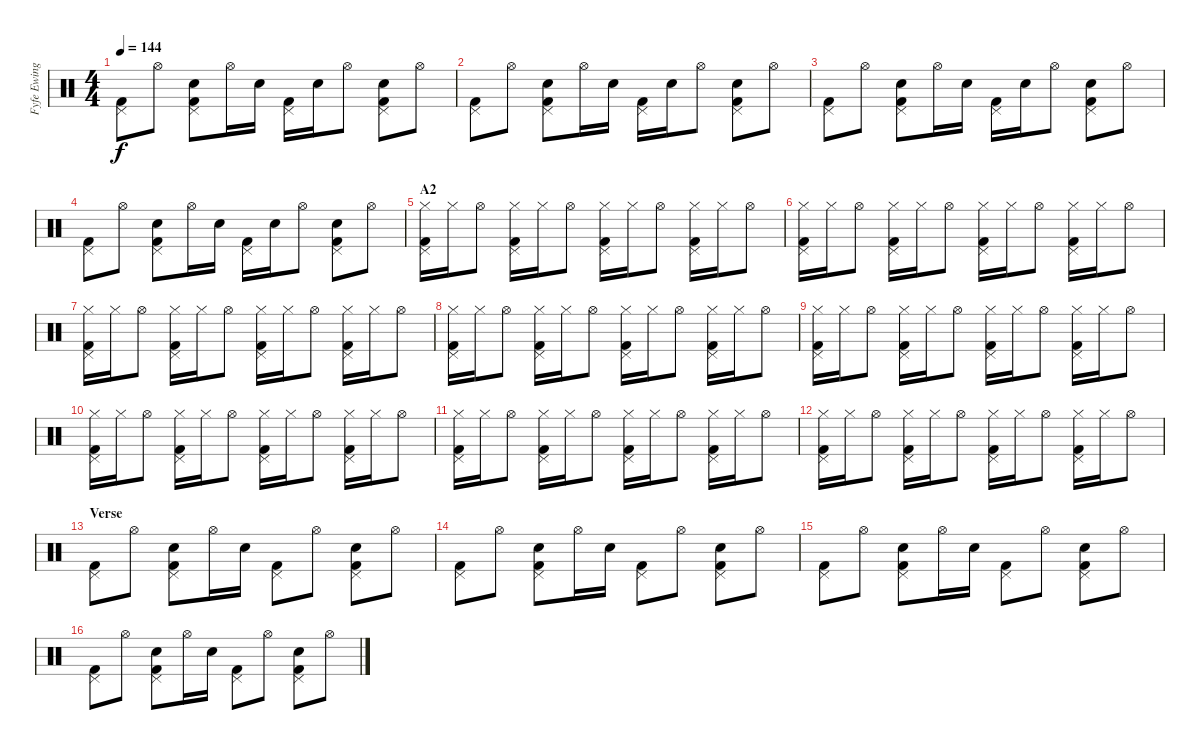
\track ("Fyfe Ewing" "Fyfe Ewing") {instrument percussion}
\staff {score}
\articulation defaults
\ts (4 4)
\tempo 144
\clef neutral
\ks c
("Pedal Hi-Hat (hit)" "Kick (hit) 2").8{dy f} "Hi-Hat (open)".8 ("Pedal Hi-Hat (hit)" "Snare (hit) 2" "Kick (hit) 2").8 "Hi-Hat (open)".16 "Snare (hit) 2".16 ("Pedal Hi-Hat (hit)" "Kick (hit) 2").16 "Snare (hit) 2".16 "Hi-Hat (open)".8 ("Pedal Hi-Hat (hit)" "Snare (hit) 2" "Kick (hit) 2").8 "Hi-Hat (open)".8 |
("Pedal Hi-Hat (hit)" "Kick (hit) 2").8 "Hi-Hat (open)".8 ("Pedal Hi-Hat (hit)" "Snare (hit) 2" "Kick (hit) 2").8 "Hi-Hat (open)".16 "Snare (hit) 2".16 ("Pedal Hi-Hat (hit)" "Kick (hit) 2").16 "Snare (hit) 2".16 "Hi-Hat (open)".8 ("Pedal Hi-Hat (hit)" "Snare (hit) 2" "Kick (hit) 2").8 "Hi-Hat (open)".8 |
("Pedal Hi-Hat (hit)" "Kick (hit) 2").8 "Hi-Hat (open)".8 ("Pedal Hi-Hat (hit)" "Snare (hit) 2" "Kick (hit) 2").8 "Hi-Hat (open)".16 "Snare (hit) 2".16 ("Pedal Hi-Hat (hit)" "Kick (hit) 2").16 "Snare (hit) 2".16 "Hi-Hat (open)".8 ("Pedal Hi-Hat (hit)" "Snare (hit) 2" "Kick (hit) 2").8 "Hi-Hat (open)".8 |
("Pedal Hi-Hat (hit)" "Kick (hit) 2").8 "Hi-Hat (open)".8 ("Pedal Hi-Hat (hit)" "Snare (hit) 2" "Kick (hit) 2").8 "Hi-Hat (open)".16 "Snare (hit) 2".16 ("Pedal Hi-Hat (hit)" "Kick (hit) 2").16 "Snare (hit) 2".16 "Hi-Hat (open)".8 ("Pedal Hi-Hat (hit)" "Snare (hit) 2" "Kick (hit) 2").8 "Hi-Hat (open)".8 |
\section ("" "A2")
("Hi-Hat (closed)" "Pedal Hi-Hat (hit)" "Kick (hit) 2").16 "Hi-Hat (closed)".16 "Hi-Hat (open)".8 ("Hi-Hat (closed)" "Pedal Hi-Hat (hit)" "Kick (hit) 2").16 "Hi-Hat (closed)".16 "Hi-Hat (open)".8 ("Hi-Hat (closed)" "Pedal Hi-Hat (hit)" "Kick (hit) 2").16 "Hi-Hat (closed)".16 "Hi-Hat (open)".8 ("Hi-Hat (closed)" "Pedal Hi-Hat (hit)" "Kick (hit) 2").16 "Hi-Hat (closed)".16 "Hi-Hat (open)".8 |
("Hi-Hat (closed)" "Pedal Hi-Hat (hit)" "Kick (hit) 2").16 "Hi-Hat (closed)".16 "Hi-Hat (open)".8 ("Hi-Hat (closed)" "Pedal Hi-Hat (hit)" "Kick (hit) 2").16 "Hi-Hat (closed)".16 "Hi-Hat (open)".8 ("Hi-Hat (closed)" "Pedal Hi-Hat (hit)" "Kick (hit) 2").16 "Hi-Hat (closed)".16 "Hi-Hat (open)".8 ("Hi-Hat (closed)" "Pedal Hi-Hat (hit)" "Kick (hit) 2").16 "Hi-Hat (closed)".16 "Hi-Hat (open)".8 |
("Hi-Hat (closed)" "Pedal Hi-Hat (hit)" "Kick (hit) 2").16 "Hi-Hat (closed)".16 "Hi-Hat (open)".8 ("Hi-Hat (closed)" "Pedal Hi-Hat (hit)" "Kick (hit) 2").16 "Hi-Hat (closed)".16 "Hi-Hat (open)".8 ("Hi-Hat (closed)" "Pedal Hi-Hat (hit)" "Kick (hit) 2").16 "Hi-Hat (closed)".16 "Hi-Hat (open)".8 ("Hi-Hat (closed)" "Pedal Hi-Hat (hit)" "Kick (hit) 2").16 "Hi-Hat (closed)".16 "Hi-Hat (open)".8 |
("Hi-Hat (closed)" "Pedal Hi-Hat (hit)" "Kick (hit) 2").16 "Hi-Hat (closed)".16 "Hi-Hat (open)".8 ("Hi-Hat (closed)" "Pedal Hi-Hat (hit)" "Kick (hit) 2").16 "Hi-Hat (closed)".16 "Hi-Hat (open)".8 ("Hi-Hat (closed)" "Pedal Hi-Hat (hit)" "Kick (hit) 2").16 "Hi-Hat (closed)".16 "Hi-Hat (open)".8 ("Hi-Hat (closed)" "Pedal Hi-Hat (hit)" "Kick (hit) 2").16 "Hi-Hat (closed)".16 "Hi-Hat (open)".8 |
("Hi-Hat (closed)" "Pedal Hi-Hat (hit)" "Kick (hit) 2").16 "Hi-Hat (closed)".16 "Hi-Hat (open)".8 ("Hi-Hat (closed)" "Pedal Hi-Hat (hit)" "Kick (hit) 2").16 "Hi-Hat (closed)".16 "Hi-Hat (open)".8 ("Hi-Hat (closed)" "Pedal Hi-Hat (hit)" "Kick (hit) 2").16 "Hi-Hat (closed)".16 "Hi-Hat (open)".8 ("Hi-Hat (closed)" "Pedal Hi-Hat (hit)" "Kick (hit) 2").16 "Hi-Hat (closed)".16 "Hi-Hat (open)".8 |
("Hi-Hat (closed)" "Pedal Hi-Hat (hit)" "Kick (hit) 2").16 "Hi-Hat (closed)".16 "Hi-Hat (open)".8 ("Hi-Hat (closed)" "Pedal Hi-Hat (hit)" "Kick (hit) 2").16 "Hi-Hat (closed)".16 "Hi-Hat (open)".8 ("Hi-Hat (closed)" "Pedal Hi-Hat (hit)" "Kick (hit) 2").16 "Hi-Hat (closed)".16 "Hi-Hat (open)".8 ("Hi-Hat (closed)" "Pedal Hi-Hat (hit)" "Kick (hit) 2").16 "Hi-Hat (closed)".16 "Hi-Hat (open)".8 |
("Hi-Hat (closed)" "Pedal Hi-Hat (hit)" "Kick (hit) 2").16 "Hi-Hat (closed)".16 "Hi-Hat (open)".8 ("Hi-Hat (closed)" "Pedal Hi-Hat (hit)" "Kick (hit) 2").16 "Hi-Hat (closed)".16 "Hi-Hat (open)".8 ("Hi-Hat (closed)" "Pedal Hi-Hat (hit)" "Kick (hit) 2").16 "Hi-Hat (closed)".16 "Hi-Hat (open)".8 ("Hi-Hat (closed)" "Pedal Hi-Hat (hit)" "Kick (hit) 2").16 "Hi-Hat (closed)".16 "Hi-Hat (open)".8 |
("Hi-Hat (closed)" "Pedal Hi-Hat (hit)" "Kick (hit) 2").16 "Hi-Hat (closed)".16 "Hi-Hat (open)".8 ("Hi-Hat (closed)" "Pedal Hi-Hat (hit)" "Kick (hit) 2").16 "Hi-Hat (closed)".16 "Hi-Hat (open)".8 ("Hi-Hat (closed)" "Pedal Hi-Hat (hit)" "Kick (hit) 2").16 "Hi-Hat (closed)".16 "Hi-Hat (open)".8 ("Hi-Hat (closed)" "Pedal Hi-Hat (hit)" "Kick (hit) 2").16 "Hi-Hat (closed)".16 "Hi-Hat (open)".8 |
\section ("" "Verse")
("Pedal Hi-Hat (hit)" "Kick (hit) 2").8 "Hi-Hat (open)".8 ("Pedal Hi-Hat (hit)" "Snare (hit) 2" "Kick (hit) 2").8 "Hi-Hat (open)".16 "Snare (hit) 2".16 ("Pedal Hi-Hat (hit)" "Kick (hit) 2").8 "Hi-Hat (open)".8 ("Pedal Hi-Hat (hit)" "Snare (hit) 2" "Kick (hit) 2").8 "Hi-Hat (open)".8 |
("Pedal Hi-Hat (hit)" "Kick (hit) 2").8 "Hi-Hat (open)".8 ("Pedal Hi-Hat (hit)" "Snare (hit) 2" "Kick (hit) 2").8 "Hi-Hat (open)".16 "Snare (hit) 2".16 ("Pedal Hi-Hat (hit)" "Kick (hit) 2").8 "Hi-Hat (open)".8 ("Pedal Hi-Hat (hit)" "Snare (hit) 2" "Kick (hit) 2").8 "Hi-Hat (open)".8 |
("Pedal Hi-Hat (hit)" "Kick (hit) 2").8 "Hi-Hat (open)".8 ("Pedal Hi-Hat (hit)" "Snare (hit) 2" "Kick (hit) 2").8 "Hi-Hat (open)".16 "Snare (hit) 2".16 ("Pedal Hi-Hat (hit)" "Kick (hit) 2").8 "Hi-Hat (open)".8 ("Pedal Hi-Hat (hit)" "Snare (hit) 2" "Kick (hit) 2").8 "Hi-Hat (open)".8 |
("Pedal Hi-Hat (hit)" "Kick (hit) 2").8 "Hi-Hat (open)".8 ("Pedal Hi-Hat (hit)" "Snare (hit) 2" "Kick (hit) 2").8 "Hi-Hat (open)".16 "Snare (hit) 2".16 ("Pedal Hi-Hat (hit)" "Kick (hit) 2").8 "Hi-Hat (open)".8 ("Pedal Hi-Hat (hit)" "Snare (hit) 2" "Kick (hit) 2").8 "Hi-Hat (open)".8
